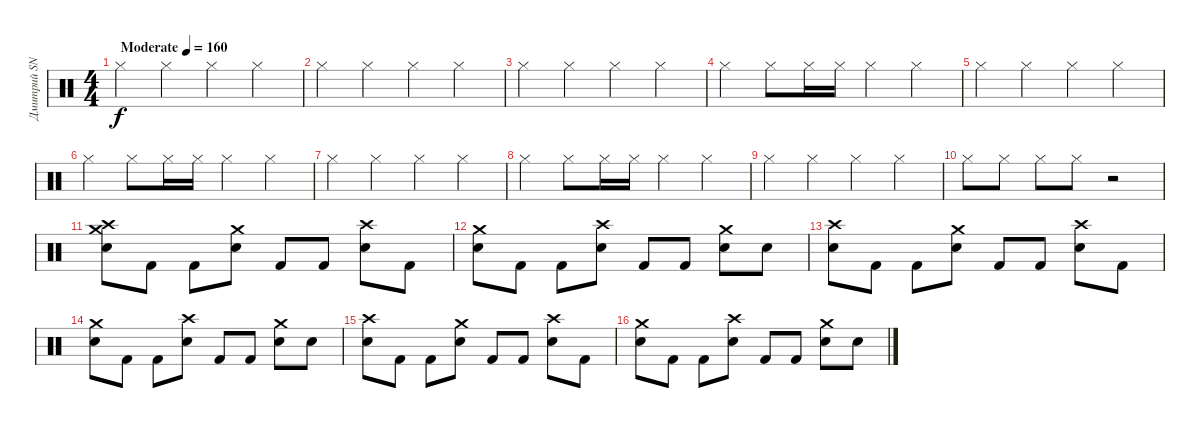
\track ("Дмитрий SNAKE Хакимов" "Дмитрий SN") {instrument percussion}
\staff {score}
\articulation defaults
\ts (4 4)
\tempo (160 "Moderate")
\clef neutral
\ks c "Hi-Hat (closed)".4{dy f} "Hi-Hat (closed)".4 "Hi-Hat (closed)".4 "Hi-Hat (closed)".4
|
"Hi-Hat (closed)".4 "Hi-Hat (closed)".4 "Hi-Hat (closed)".4 "Hi-Hat (closed)".4 |
"Hi-Hat (closed)".4 "Hi-Hat (closed)".4 "Hi-Hat (closed)".4 "Hi-Hat (closed)".4 |
"Hi-Hat (closed)".4 "Hi-Hat (closed)".8 "Hi-Hat (closed)".16 "Hi-Hat (closed)".16 "Hi-Hat (closed)".4 "Hi-Hat (closed)".4 |
"Hi-Hat (closed)".4 "Hi-Hat (closed)".4 "Hi-Hat (closed)".4 "Hi-Hat (closed)".4 |
"Hi-Hat (closed)".4 "Hi-Hat (closed)".8 "Hi-Hat (closed)".16 "Hi-Hat (closed)".16 "Hi-Hat (closed)".4 "Hi-Hat (closed)".4 |
"Hi-Hat (closed)".4 "Hi-Hat (closed)".4 "Hi-Hat (closed)".4 "Hi-Hat (closed)".4 |
"Hi-Hat (closed)".4 "Hi-Hat (closed)".8 "Hi-Hat (closed)".16 "Hi-Hat (closed)".16 "Hi-Hat (closed)".4 "Hi-Hat (closed)".4 |
"Hi-Hat (closed)".4 "Hi-Hat (closed)".4 "Hi-Hat (closed)".4 "Hi-Hat (closed)".4 |
"Hi-Hat (closed)".8 "Hi-Hat (closed)".8 "Hi-Hat (closed)".8 "Hi-Hat (closed)".8 r.2 |
("Crash high (hit)" "Crash medium (hit)" "Snare (hit) 2").8 "Kick (hit) 2".8 "Kick (hit) 2".8 ("Crash medium (hit)" "Snare (hit) 2").8 "Kick (hit) 2".8 "Kick (hit) 2".8 ("Crash high (hit)" "Snare (hit) 2").8 "Kick (hit) 2".8 |
("Crash medium (hit)" "Snare (hit) 2").8 "Kick (hit) 2".8 "Kick (hit) 2".8 ("Crash high (hit)" "Snare (hit) 2").8 "Kick (hit) 2".8 "Kick (hit) 2".8 ("Crash medium (hit)" "Snare (hit) 2").8 "Snare (hit) 2".8 |
("Crash high (hit)" "Snare (hit) 2").8 "Kick (hit) 2".8 "Kick (hit) 2".8 ("Crash medium (hit)" "Snare (hit) 2").8 "Kick (hit) 2".8 "Kick (hit) 2".8 ("Crash high (hit)" "Snare (hit) 2").8 "Kick (hit) 2".8 |
("Crash medium (hit)" "Snare (hit) 2").8 "Kick (hit) 2".8 "Kick (hit) 2".8 ("Crash high (hit)" "Snare (hit) 2").8 "Kick (hit) 2".8 "Kick (hit) 2".8 ("Crash medium (hit)" "Snare (hit) 2").8 "Snare (hit) 2".8 |
("Crash high (hit)" "Snare (hit) 2").8 "Kick (hit) 2".8 "Kick (hit) 2".8 ("Crash medium (hit)" "Snare (hit) 2").8 "Kick (hit) 2".8 "Kick (hit) 2".8 ("Crash high (hit)" "Snare (hit) 2").8 "Kick (hit) 2".8 |
("Crash medium (hit)" "Snare (hit) 2").8 "Kick (hit) 2".8 "Kick (hit) 2".8 ("Crash high (hit)" "Snare (hit) 2").8 "Kick (hit) 2".8 "Kick (hit) 2".8 ("Crash medium (hit)" "Snare (hit) 2").8 "Snare (hit) 2".8
